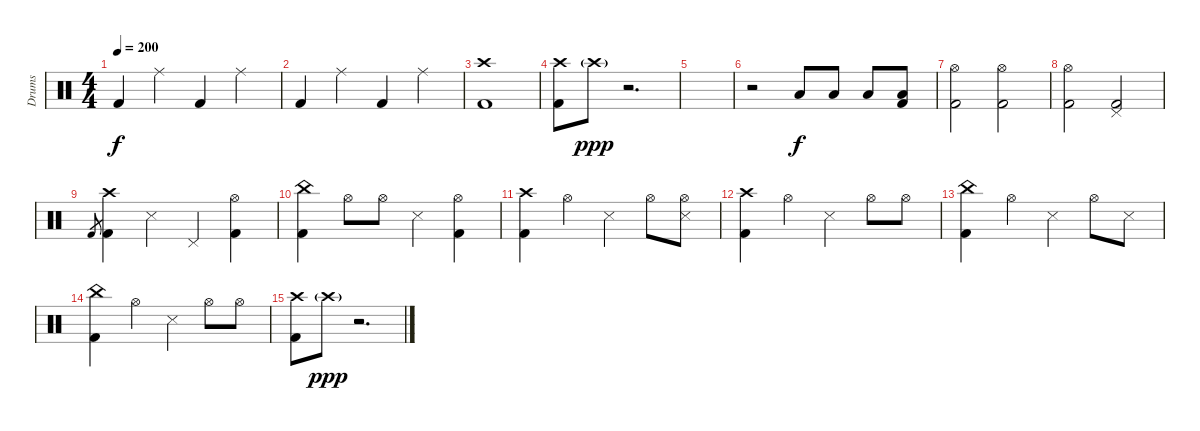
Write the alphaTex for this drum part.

\track ("Drums" "Drums") {instrument percussion}
\staff {score}
\articulation defaults
\ts (4 4)
\tempo 200
\clef neutral
\ks c "Kick (hit) 2".4{dy f} "Ride (middle)".4 "Kick (hit) 2".4 "Ride (middle)".4
|
"Kick (hit) 2".4 "Ride (middle)".4 "Kick (hit) 2".4 "Ride (middle)".4 |
("Crash high (hit)" "Kick (hit) 2").1 |
("Crash high (hit)" "Kick (hit) 2").8 "Crash high (hit)"{g}.8{dy ppp} r.2{d} |
|
r.2 "Low Tom (hit)".8{dy f} "Low Tom (hit)".8 "Low Tom (hit)".8 ("Low Tom (hit)" "Kick (hit) 2").8 |
("Hi-Hat (open)" "Kick (hit) 2").2 ("Hi-Hat (open)" "Kick (hit) 2").2 |
("Hi-Hat (open)" "Kick (hit) 2").2 ("Pedal Hi-Hat (hit)" "Kick (hit) 2").2 |
"Kick (hit) 2".8{gr} ("Crash high (hit)" "Kick (hit) 2").4 "Snare (side stick) 3".4 "Pedal Hi-Hat (hit)".4 ("Hi-Hat (open)" "Kick (hit) 2").4 |
("China (hit)" "Kick (hit) 2").4 "Hi-Hat (open)".8 "Hi-Hat (open)".8 "Snare (side stick) 3".4 ("Hi-Hat (open)" "Kick (hit) 2").4 |
("Crash high (hit)" "Kick (hit) 2").4 "Hi-Hat (open)".4 "Snare (side stick) 3".4 "Hi-Hat (open)".8 ("Hi-Hat (open)" "Snare (side stick) 3").8 |
("Crash high (hit)" "Kick (hit) 2").4 "Hi-Hat (open)".4 "Snare (side stick) 3".4 "Hi-Hat (open)".8 "Hi-Hat (open)".8 |
("China (hit)" "Kick (hit) 2").4 "Hi-Hat (open)".4 "Snare (side stick) 3".4 "Hi-Hat (open)".8 "Snare (side stick) 3".8 |
("China (hit)" "Kick (hit) 2").4 "Hi-Hat (open)".4 "Snare (side stick) 3".4 "Hi-Hat (open)".8 "Hi-Hat (open)".8 |
("Crash high (hit)" "Kick (hit) 2").8 "Crash high (hit)"{g}.8{dy ppp} r.2{d}
